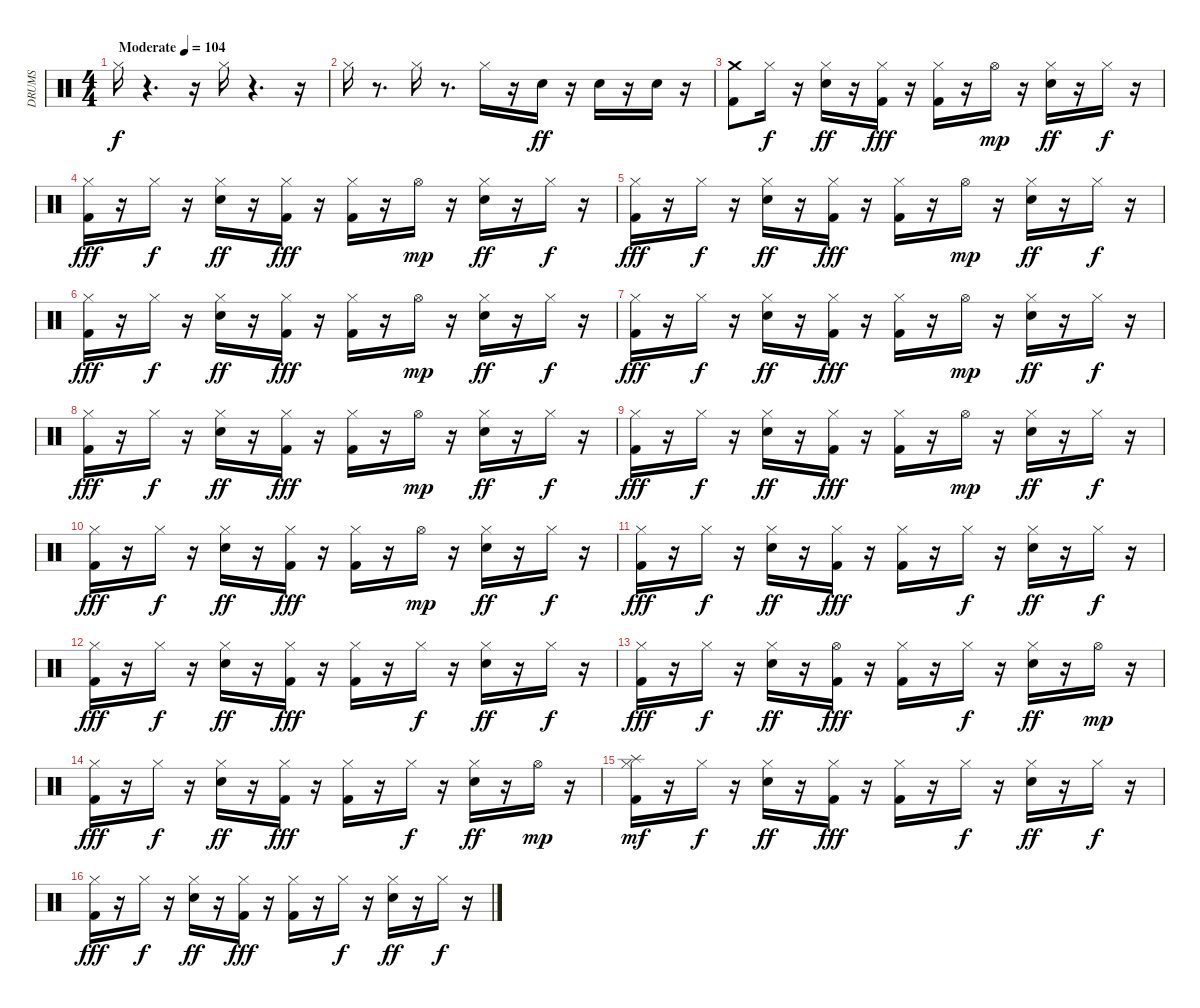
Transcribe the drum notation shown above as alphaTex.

\track ("DRUMS" "DRUMS") {instrument percussion}
\staff {score}
\articulation defaults
\ts (4 4)
\tempo (104 "Moderate")
\clef neutral
\ks c "Hi-Hat (closed)".16{dy f}
r.4{d} r.16 "Hi-Hat (closed)".16 r.4{d} r.16 |
"Hi-Hat (closed)".16 r.8{d} "Hi-Hat (closed)".16 r.8{d} "Hi-Hat (closed)".16 r.16 "Snare (hit) 2".16{dy ff} r.16 "Snare (hit) 2".16 r.16 "Snare (hit) 2".16 r.16 |
("Kick (hit) 2" "Crash medium (hit)").8 "Hi-Hat (closed)".16{dy f} r.16 ("Hi-Hat (closed)" "Snare (hit) 2").16{dy ff} r.16 ("Hi-Hat (closed)" "Kick (hit) 2").16{dy fff} r.16 ("Hi-Hat (closed)" "Kick (hit) 2").16 r.16 "Hi-Hat (open)".16{dy mp} r.16 ("Hi-Hat (closed)" "Snare (hit) 2").16{dy ff} r.16 "Hi-Hat (closed)".16{dy f} r.16 |
("Hi-Hat (closed)" "Kick (hit) 2").16{dy fff} r.16 "Hi-Hat (closed)".16{dy f} r.16 ("Hi-Hat (closed)" "Snare (hit) 2").16{dy ff} r.16 ("Hi-Hat (closed)" "Kick (hit) 2").16{dy fff} r.16 ("Hi-Hat (closed)" "Kick (hit) 2").16 r.16 "Hi-Hat (open)".16{dy mp} r.16 ("Hi-Hat (closed)" "Snare (hit) 2").16{dy ff} r.16 "Hi-Hat (closed)".16{dy f} r.16 |
("Kick (hit) 2" "Hi-Hat (closed)").16{dy fff} r.16 "Hi-Hat (closed)".16{dy f} r.16 ("Hi-Hat (closed)" "Snare (hit) 2").16{dy ff} r.16 ("Hi-Hat (closed)" "Kick (hit) 2").16{dy fff} r.16 ("Hi-Hat (closed)" "Kick (hit) 2").16 r.16 "Hi-Hat (open)".16{dy mp} r.16 ("Hi-Hat (closed)" "Snare (hit) 2").16{dy ff} r.16 "Hi-Hat (closed)".16{dy f} r.16 |
("Hi-Hat (closed)" "Kick (hit) 2").16{dy fff} r.16 "Hi-Hat (closed)".16{dy f} r.16 ("Hi-Hat (closed)" "Snare (hit) 2").16{dy ff} r.16 ("Hi-Hat (closed)" "Kick (hit) 2").16{dy fff} r.16 ("Hi-Hat (closed)" "Kick (hit) 2").16 r.16 "Hi-Hat (open)".16{dy mp} r.16 ("Hi-Hat (closed)" "Snare (hit) 2").16{dy ff} r.16 "Hi-Hat (closed)".16{dy f} r.16 |
("Kick (hit) 2" "Hi-Hat (closed)").16{dy fff} r.16 "Hi-Hat (closed)".16{dy f} r.16 ("Hi-Hat (closed)" "Snare (hit) 2").16{dy ff} r.16 ("Hi-Hat (closed)" "Kick (hit) 2").16{dy fff} r.16 ("Hi-Hat (closed)" "Kick (hit) 2").16 r.16 "Hi-Hat (open)".16{dy mp} r.16 ("Hi-Hat (closed)" "Snare (hit) 2").16{dy ff} r.16 "Hi-Hat (closed)".16{dy f} r.16 |
("Hi-Hat (closed)" "Kick (hit) 2").16{dy fff} r.16 "Hi-Hat (closed)".16{dy f} r.16 ("Hi-Hat (closed)" "Snare (hit) 2").16{dy ff} r.16 ("Hi-Hat (closed)" "Kick (hit) 2").16{dy fff} r.16 ("Hi-Hat (closed)" "Kick (hit) 2").16 r.16 "Hi-Hat (open)".16{dy mp} r.16 ("Hi-Hat (closed)" "Snare (hit) 2").16{dy ff} r.16 "Hi-Hat (closed)".16{dy f} r.16 |
("Kick (hit) 2" "Hi-Hat (closed)").16{dy fff} r.16 "Hi-Hat (closed)".16{dy f} r.16 ("Hi-Hat (closed)" "Snare (hit) 2").16{dy ff} r.16 ("Hi-Hat (closed)" "Kick (hit) 2").16{dy fff} r.16 ("Hi-Hat (closed)" "Kick (hit) 2").16 r.16 "Hi-Hat (open)".16{dy mp} r.16 ("Hi-Hat (closed)" "Snare (hit) 2").16{dy ff} r.16 "Hi-Hat (closed)".16{dy f} r.16 |
("Hi-Hat (closed)" "Kick (hit) 2").16{dy fff} r.16 "Hi-Hat (closed)".16{dy f} r.16 ("Hi-Hat (closed)" "Snare (hit) 2").16{dy ff} r.16 ("Hi-Hat (closed)" "Kick (hit) 2").16{dy fff} r.16 ("Hi-Hat (closed)" "Kick (hit) 2").16 r.16 "Hi-Hat (open)".16{dy mp} r.16 ("Hi-Hat (closed)" "Snare (hit) 2").16{dy ff} r.16 "Hi-Hat (closed)".16{dy f} r.16 |
("Kick (hit) 2" "Hi-Hat (closed)").16{dy fff} r.16 "Hi-Hat (closed)".16{dy f} r.16 ("Hi-Hat (closed)" "Snare (hit) 2").16{dy ff} r.16 ("Hi-Hat (closed)" "Kick (hit) 2").16{dy fff} r.16 ("Hi-Hat (closed)" "Kick (hit) 2").16 r.16 "Hi-Hat (closed)".16{dy f} r.16 ("Hi-Hat (closed)" "Snare (hit) 2").16{dy ff} r.16 "Hi-Hat (closed)".16{dy f} r.16 |
("Hi-Hat (closed)" "Kick (hit) 2").16{dy fff} r.16 "Hi-Hat (closed)".16{dy f} r.16 ("Hi-Hat (closed)" "Snare (hit) 2").16{dy ff} r.16 ("Hi-Hat (closed)" "Kick (hit) 2").16{dy fff} r.16 ("Hi-Hat (closed)" "Kick (hit) 2").16 r.16 "Hi-Hat (closed)".16{dy f} r.16 ("Hi-Hat (closed)" "Snare (hit) 2").16{dy ff} r.16 "Hi-Hat (closed)".16{dy f} r.16 |
("Kick (hit) 2" "Hi-Hat (closed)").16{dy fff} r.16 "Hi-Hat (closed)".16{dy f} r.16 ("Hi-Hat (closed)" "Snare (hit) 2").16{dy ff} r.16 ("Hi-Hat (open)" "Kick (hit) 2").16{dy fff} r.16 ("Hi-Hat (closed)" "Kick (hit) 2").16 r.16 "Hi-Hat (closed)".16{dy f} r.16 ("Hi-Hat (closed)" "Snare (hit) 2").16{dy ff} r.16 "Hi-Hat (open)".16{dy mp} r.16 |
("Hi-Hat (closed)" "Kick (hit) 2").16{dy fff} r.16 "Hi-Hat (closed)".16{dy f} r.16 ("Hi-Hat (closed)" "Snare (hit) 2").16{dy ff} r.16 ("Hi-Hat (closed)" "Kick (hit) 2").16{dy fff} r.16 ("Hi-Hat (closed)" "Kick (hit) 2").16 r.16 "Hi-Hat (closed)".16{dy f} r.16 ("Hi-Hat (closed)" "Snare (hit) 2").16{dy ff} r.16 "Hi-Hat (open)".16{dy mp} r.16 |
("Kick (hit) 2" "Splash (hit)" "Hi-Hat (closed)").16{dy mf} r.16 "Hi-Hat (closed)".16{dy f} r.16 ("Hi-Hat (closed)" "Snare (hit) 2").16{dy ff} r.16 ("Hi-Hat (closed)" "Kick (hit) 2").16{dy fff} r.16 ("Hi-Hat (closed)" "Kick (hit) 2").16 r.16 "Hi-Hat (closed)".16{dy f} r.16 ("Hi-Hat (closed)" "Snare (hit) 2").16{dy ff} r.16 "Hi-Hat (closed)".16{dy f} r.16 |
("Hi-Hat (closed)" "Kick (hit) 2").16{dy fff} r.16 "Hi-Hat (closed)".16{dy f} r.16 ("Hi-Hat (closed)" "Snare (hit) 2").16{dy ff} r.16 ("Hi-Hat (closed)" "Kick (hit) 2").16{dy fff} r.16 ("Hi-Hat (closed)" "Kick (hit) 2").16 r.16 "Hi-Hat (closed)".16{dy f} r.16 ("Hi-Hat (closed)" "Snare (hit) 2").16{dy ff} r.16 "Hi-Hat (closed)".16{dy f} r.16
